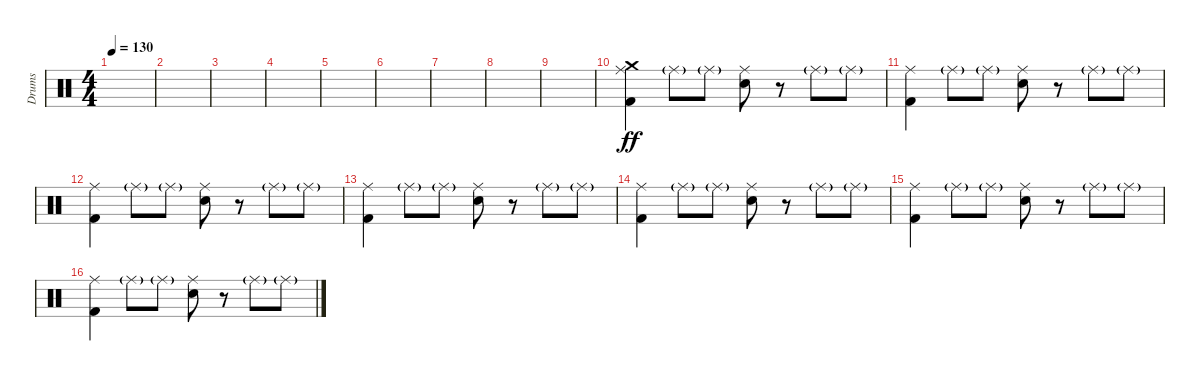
\track ("Drums" "Drums") {instrument percussion}
\staff {score}
\articulation defaults
\ts (4 4)
\tempo 130
\clef neutral
\ks c
|
|
|
|
|
|
|
|
|
("Crash medium (hit)" "Ride (middle)" "Kick (hit) 2").4{dy ff} "Ride (middle)"{g}.8 "Ride (middle)"{g}.8 ("Ride (middle)" "Electric Snare (hit)").8 r.8 "Ride (middle)"{g}.8 "Ride (middle)"{g}.8 |
("Ride (middle)" "Kick (hit) 2").4 "Ride (middle)"{g}.8 "Ride (middle)"{g}.8 ("Ride (middle)" "Electric Snare (hit)").8 r.8 "Ride (middle)"{g}.8 "Ride (middle)"{g}.8 |
("Ride (middle)" "Kick (hit) 2").4 "Ride (middle)"{g}.8 "Ride (middle)"{g}.8 ("Ride (middle)" "Electric Snare (hit)").8 r.8 "Ride (middle)"{g}.8 "Ride (middle)"{g}.8 |
("Ride (middle)" "Kick (hit) 2").4 "Ride (middle)"{g}.8 "Ride (middle)"{g}.8 ("Ride (middle)" "Electric Snare (hit)").8 r.8 "Ride (middle)"{g}.8 "Ride (middle)"{g}.8 |
("Ride (middle)" "Kick (hit) 2").4 "Ride (middle)"{g}.8 "Ride (middle)"{g}.8 ("Ride (middle)" "Electric Snare (hit)").8 r.8 "Ride (middle)"{g}.8 "Ride (middle)"{g}.8 |
("Ride (middle)" "Kick (hit) 2").4 "Ride (middle)"{g}.8 "Ride (middle)"{g}.8 ("Ride (middle)" "Electric Snare (hit)").8 r.8 "Ride (middle)"{g}.8 "Ride (middle)"{g}.8 |
("Ride (middle)" "Kick (hit) 2").4 "Ride (middle)"{g}.8 "Ride (middle)"{g}.8 ("Ride (middle)" "Electric Snare (hit)").8 r.8 "Ride (middle)"{g}.8 "Ride (middle)"{g}.8
